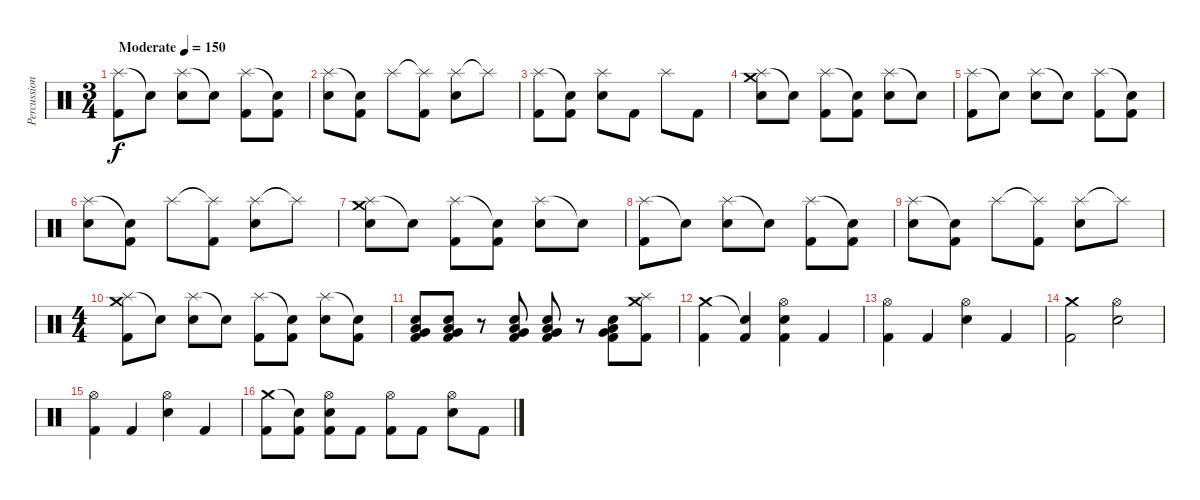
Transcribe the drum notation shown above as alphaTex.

\track ("Percussion" "Percussion") {instrument percussion}
\staff {score}
\articulation defaults
\ts (3 4)
\tempo (150 "Moderate")
\clef neutral
\ks c
("Splash (hit)" "Kick (hit) 2").8{dy f} "Snare (hit)"{t}.8 ("Splash (hit)" "Electric Snare (hit)").8 "Snare (hit)"{t}.8 ("Splash (hit)" "Kick (hit) 2").8 ("Snare (hit)"{t} "Kick (hit) 2").8 |
("Splash (hit)" "Electric Snare (hit)").8 ("Snare (hit)"{t} "Kick (hit) 2").8 "Splash (hit)".8 ("Splash (hit)"{t} "Kick (hit) 2").8 ("Splash (hit)" "Electric Snare (hit)").8 "Splash (hit)"{t}.8 |
("Splash (hit)" "Kick (hit) 2").8 ("Snare (hit)"{t} "Kick (hit) 2").8 ("Splash (hit)" "Electric Snare (hit)").8 "Kick (hit) 2".8 "Splash (hit)".8 "Kick (hit) 2".8 |
("Splash (hit)" "Crash medium (hit)" "Electric Snare (hit)").8 "Snare (hit)"{t}.8 ("Splash (hit)" "Kick (hit) 2").8 ("Snare (hit)"{t} "Kick (hit) 2").8 ("Splash (hit)" "Electric Snare (hit)").8 "Snare (hit)"{t}.8 |
("Splash (hit)" "Kick (hit) 2").8 "Snare (hit)"{t}.8 ("Splash (hit)" "Electric Snare (hit)").8 "Snare (hit)"{t}.8 ("Splash (hit)" "Kick (hit) 2").8 ("Snare (hit)"{t} "Kick (hit) 2").8 |
("Splash (hit)" "Electric Snare (hit)").8 ("Snare (hit)"{t} "Kick (hit) 2").8 "Splash (hit)".8 ("Splash (hit)"{t} "Kick (hit) 2").8 ("Splash (hit)" "Electric Snare (hit)").8 "Splash (hit)"{t}.8 |
("Splash (hit)" "Crash medium (hit)" "Electric Snare (hit)").8 "Snare (hit)"{t}.8 ("Splash (hit)" "Kick (hit) 2").8 ("Snare (hit)"{t} "Kick (hit) 2").8 ("Splash (hit)" "Electric Snare (hit)").8 "Snare (hit)"{t}.8 |
("Splash (hit)" "Kick (hit) 2").8 "Snare (hit)"{t}.8 ("Splash (hit)" "Electric Snare (hit)").8 "Snare (hit)"{t}.8 ("Splash (hit)" "Kick (hit) 2").8 ("Snare (hit)"{t} "Kick (hit) 2").8 |
("Splash (hit)" "Electric Snare (hit)").8 ("Snare (hit)"{t} "Kick (hit) 2").8 "Splash (hit)".8 ("Splash (hit)"{t} "Kick (hit) 2").8 ("Splash (hit)" "Electric Snare (hit)").8 "Splash (hit)"{t}.8 |
\ts (4 4)
("Splash (hit)" "Crash medium (hit)" "Kick (hit) 2").8 "Snare (hit)"{t}.8 ("Splash (hit)" "Electric Snare (hit)").8 "Snare (hit)"{t}.8 ("Splash (hit)" "Kick (hit) 2").8 ("Snare (hit)"{t} "Kick (hit) 2").8 ("Splash (hit)" "Electric Snare (hit)").8 ("Snare (hit)"{t} "Kick (hit) 2").8 |
("Electric Snare (hit)" "Low Floor Tom (hit)" "Very Low Tom (hit)" "Kick (hit) 2").8 ("Electric Snare (hit)" "Low Floor Tom (hit)" "Very Low Tom (hit)" "Kick (hit) 2").8 r.8 ("Electric Snare (hit)" "Low Floor Tom (hit)" "Very Low Tom (hit)" "Kick (hit) 2").8 ("Electric Snare (hit)" "Low Floor Tom (hit)" "Very Low Tom (hit)" "Kick (hit) 2").8 r.8 ("Electric Snare (hit)" "Low Floor Tom (hit)" "Very Low Tom (hit)" "Kick (hit) 2").8 ("Splash (hit)" "Crash medium (hit)" "Kick (hit) 2").8 |
("Crash medium (hit)" "Kick (hit) 2").4 ("Snare (hit)"{t} "Kick (hit) 2").4 ("Hi-Hat (open)" "Electric Snare (hit)" "Kick (hit) 2").4 "Kick (hit) 2".4 |
("Hi-Hat (open)" "Kick (hit) 2").4 "Kick (hit) 2".4 ("Hi-Hat (open)" "Electric Snare (hit)").4 "Kick (hit) 2".4 |
("Crash medium (hit)" "Kick (hit) 2").2 ("Hi-Hat (open)" "Electric Snare (hit)").2 |
("Hi-Hat (open)" "Kick (hit) 2").4 "Kick (hit) 2".4 ("Hi-Hat (open)" "Electric Snare (hit)").4 "Kick (hit) 2".4 |
("Crash medium (hit)" "Kick (hit) 2").8 ("Snare (hit)"{t} "Kick (hit) 2").8 ("Hi-Hat (open)" "Electric Snare (hit)" "Kick (hit) 2").8 "Kick (hit) 2".8 ("Hi-Hat (open)" "Kick (hit) 2").8 "Kick (hit) 2".8 ("Hi-Hat (open)" "Electric Snare (hit)").8 "Kick (hit) 2".8
